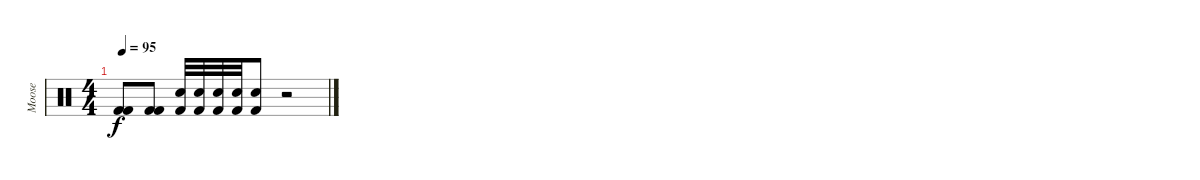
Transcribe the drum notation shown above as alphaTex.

\track ("Moose" "Moose") {instrument percussion}
\staff {score}
\articulation defaults
\ts (4 4)
\tempo 95
\clef neutral
\ks c
("Kick (hit) 2" "Kick (hit) 2").8{dy f} ("Kick (hit) 2" "Kick (hit) 2").8 ("Electric Snare (hit)" "Kick (hit) 2").32 ("Electric Snare (hit)" "Kick (hit) 2").32 ("Electric Snare (hit)" "Kick (hit) 2").32 ("Electric Snare (hit)" "Kick (hit) 2").32 ("Electric Snare (hit)" "Kick (hit) 2").8 r.2
